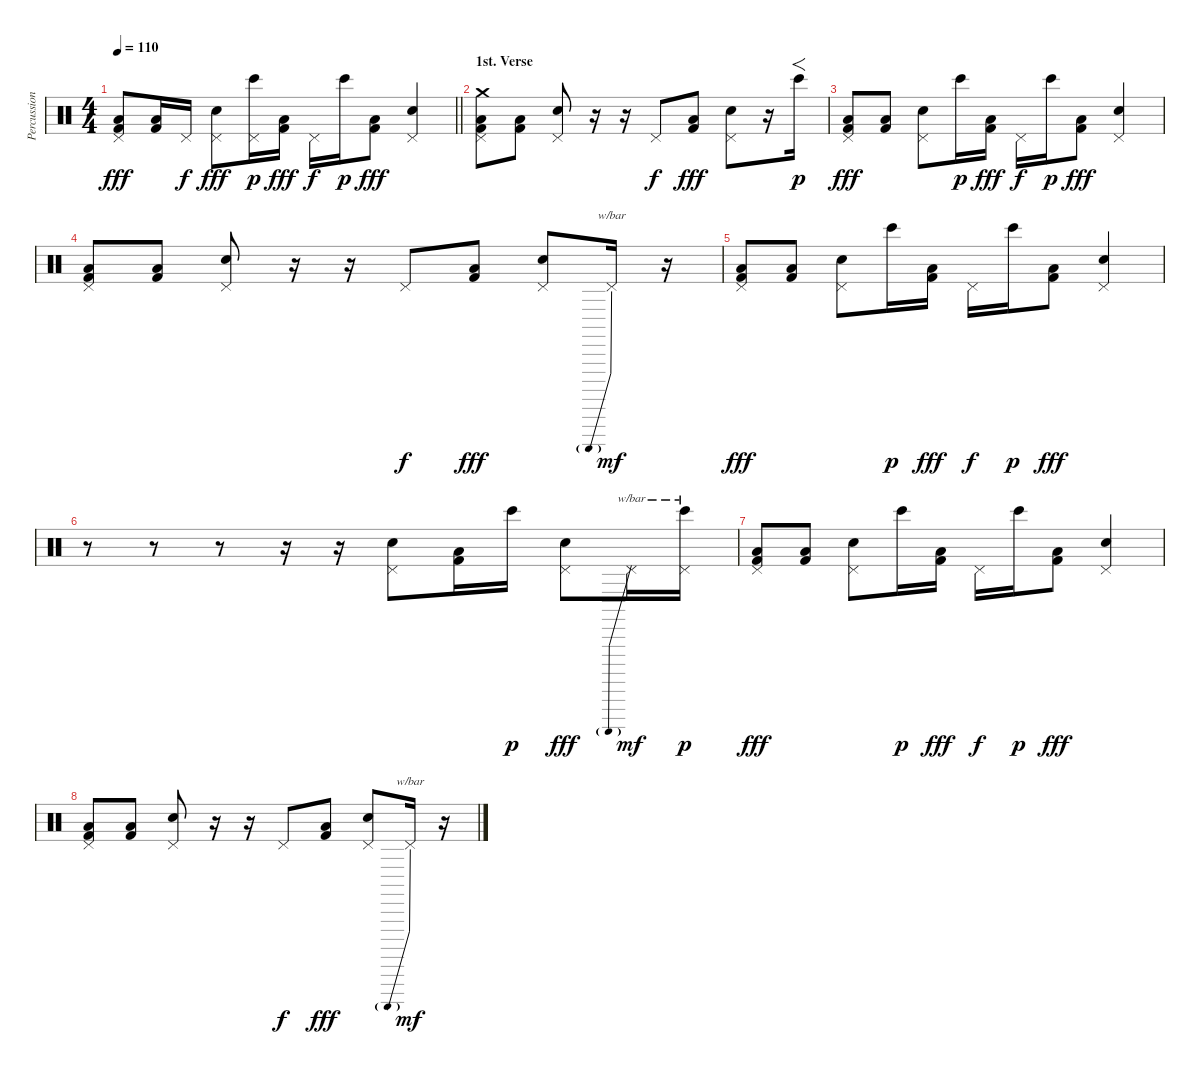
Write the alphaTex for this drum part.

\track ("Percussion" "Percussion") {instrument percussion}
\staff {score}
\articulation defaults
\ts (4 4)
\tempo 110
\clef neutral
\barLineRight lightlight
\ks c
("Pedal Hi-Hat (hit)" "Kick (hit) 2" "Low Floor Tom (hit)"{be (hold 0 0 60 0)}).8{dy fff} ("Kick (hit) 2" "Low Floor Tom (hit)"{be (hold 0 0 60 0)}).16 "Pedal Hi-Hat (hit)".16{dy f} ("Pedal Hi-Hat (hit)" "Hand Clap (hit)").8{dy fff} ("Pedal Hi-Hat (hit)" "Bongo High (hit)").16{dy p} ("Kick (hit) 2" "Low Floor Tom (hit)"{be (hold 0 0 60 0)}).16{dy fff} "Pedal Hi-Hat (hit)".16{dy f} "Bongo High (hit)".16{dy p} ("Kick (hit) 2" "Low Floor Tom (hit)"{be (hold 0 0 60 0)}).8{dy fff} ("Pedal Hi-Hat (hit)" "Hand Clap (hit)").4 |
\section ("" "1st. Verse")
("Crash medium (hit)" "Pedal Hi-Hat (hit)" "Kick (hit) 2" "Low Floor Tom (hit)"{be (hold 0 0 60 0)}).8 ("Kick (hit) 2" "Low Floor Tom (hit)"{be (hold 0 0 60 0)}).8 ("Pedal Hi-Hat (hit)" "Hand Clap (hit)").8 r.16 r.16 "Pedal Hi-Hat (hit)".8{dy f} ("Kick (hit) 2" "Low Floor Tom (hit)"{be (hold 0 0 60 0)}).8{dy fff} ("Pedal Hi-Hat (hit)" "Hand Clap (hit)").8 r.16 "Bongo High (hit)".16{f dy p} |
("Pedal Hi-Hat (hit)" "Kick (hit) 2" "Low Floor Tom (hit)"{be (hold 0 0 60 0)}).8{dy fff} ("Kick (hit) 2" "Low Floor Tom (hit)"{be (hold 0 0 60 0)}).8 ("Pedal Hi-Hat (hit)" "Hand Clap (hit)").8 "Bongo High (hit)".16{dy p} ("Kick (hit) 2" "Low Floor Tom (hit)"{be (hold 0 0 60 0)}).16{dy fff} "Pedal Hi-Hat (hit)".16{dy f} "Bongo High (hit)".16{dy p} ("Kick (hit) 2" "Low Floor Tom (hit)"{be (hold 0 0 60 0)}).8{dy fff} ("Pedal Hi-Hat (hit)" "Hand Clap (hit)").4 |
("Pedal Hi-Hat (hit)" "Kick (hit) 2" "Low Floor Tom (hit)"{be (hold 0 0 60 0)}).8 ("Kick (hit) 2" "Low Floor Tom (hit)"{be (hold 0 0 60 0)}).8 ("Pedal Hi-Hat (hit)" "Hand Clap (hit)").8 r.16 r.16 "Pedal Hi-Hat (hit)".8{dy f} ("Kick (hit) 2" "Low Floor Tom (hit)"{be (hold 0 0 60 0)}).8{dy fff} ("Pedal Hi-Hat (hit)" "Hand Clap (hit)").8 "Pedal Hi-Hat (hit)".16{tbe (predive default 0 -24 60 -24) dy mf} r.16 |
("Pedal Hi-Hat (hit)" "Kick (hit) 2" "Low Floor Tom (hit)"{be (hold 0 0 60 0)}).8{dy fff} ("Kick (hit) 2" "Low Floor Tom (hit)"{be (hold 0 0 60 0)}).8 ("Pedal Hi-Hat (hit)" "Hand Clap (hit)").8 "Bongo High (hit)".16{dy p} ("Kick (hit) 2" "Low Floor Tom (hit)"{be (hold 0 0 60 0)}).16{dy fff} "Pedal Hi-Hat (hit)".16{dy f} "Bongo High (hit)".16{dy p} ("Kick (hit) 2" "Low Floor Tom (hit)"{be (hold 0 0 60 0)}).8{dy fff} ("Pedal Hi-Hat (hit)" "Hand Clap (hit)").4 |
r.8 r.8 r.8 r.16 r.16 ("Pedal Hi-Hat (hit)" "Hand Clap (hit)").8 ("Kick (hit) 2" "Low Floor Tom (hit)"{be (hold 0 0 60 0)}).16 "Bongo High (hit)".16{dy p} ("Pedal Hi-Hat (hit)" "Hand Clap (hit)").8{dy fff} "Pedal Hi-Hat (hit)".16{tbe (predive default 0 -24 60 -24) dy mf} ("Pedal Hi-Hat (hit)" "Bongo High (hit)").16{tbe (hold default 0 -14 60 -14) dy p} |
("Pedal Hi-Hat (hit)" "Kick (hit) 2" "Low Floor Tom (hit)"{be (hold 0 0 60 0)}).8{dy fff} ("Kick (hit) 2" "Low Floor Tom (hit)"{be (hold 0 0 60 0)}).8 ("Pedal Hi-Hat (hit)" "Hand Clap (hit)").8 "Bongo High (hit)".16{dy p} ("Kick (hit) 2" "Low Floor Tom (hit)"{be (hold 0 0 60 0)}).16{dy fff} "Pedal Hi-Hat (hit)".16{dy f} "Bongo High (hit)".16{dy p} ("Kick (hit) 2" "Low Floor Tom (hit)"{be (hold 0 0 60 0)}).8{dy fff} ("Pedal Hi-Hat (hit)" "Hand Clap (hit)").4 |
("Pedal Hi-Hat (hit)" "Kick (hit) 2" "Low Floor Tom (hit)"{be (hold 0 0 60 0)}).8 ("Kick (hit) 2" "Low Floor Tom (hit)"{be (hold 0 0 60 0)}).8 ("Pedal Hi-Hat (hit)" "Hand Clap (hit)").8 r.16 r.16 "Pedal Hi-Hat (hit)".8{dy f} ("Kick (hit) 2" "Low Floor Tom (hit)"{be (hold 0 0 60 0)}).8{dy fff} ("Pedal Hi-Hat (hit)" "Hand Clap (hit)").8 "Pedal Hi-Hat (hit)".16{tbe (predive default 0 -24 60 -24) dy mf} r.16
